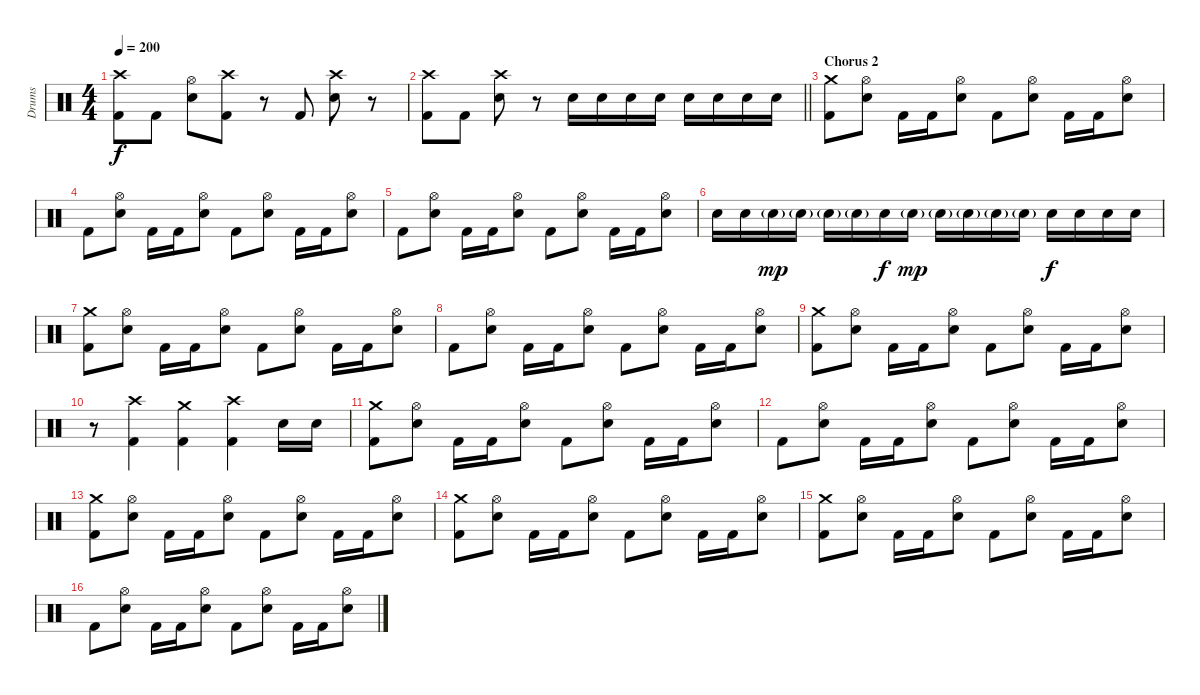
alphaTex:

\track ("Drums" "Drums") {instrument percussion}
\staff {score}
\articulation defaults
\ts (4 4)
\tempo 200
\clef neutral
\ks c
("Crash high (hit)" "Kick (hit) 2").8{dy f} "Kick (hit) 2".8 ("Hi-Hat (open)" "Electric Snare (hit)").8 ("Crash high (hit)" "Kick (hit) 2").8 r.8 "Kick (hit) 2".8 ("Crash high (hit)" "Electric Snare (hit)").8 r.8 |
\barLineRight lightlight
("Crash high (hit)" "Kick (hit) 2").8 "Kick (hit) 2".8 ("Crash high (hit)" "Electric Snare (hit)").8 r.8 "Electric Snare (hit)".16 "Electric Snare (hit)".16 "Electric Snare (hit)".16 "Electric Snare (hit)".16 "Electric Snare (hit)".16 "Electric Snare (hit)".16 "Electric Snare (hit)".16 "Electric Snare (hit)".16 |
\section ("" "Chorus 2")
("Crash medium (hit)" "Kick (hit) 2").8 ("Hi-Hat (open)" "Electric Snare (hit)").8 "Kick (hit) 2".16 "Kick (hit) 2".16 ("Hi-Hat (open)" "Electric Snare (hit)").8 "Kick (hit) 2".8 ("Hi-Hat (open)" "Electric Snare (hit)").8 "Kick (hit) 2".16 "Kick (hit) 2".16 ("Hi-Hat (open)" "Electric Snare (hit)").8 |
"Kick (hit) 2".8 ("Hi-Hat (open)" "Electric Snare (hit)").8 "Kick (hit) 2".16 "Kick (hit) 2".16 ("Hi-Hat (open)" "Electric Snare (hit)").8 "Kick (hit) 2".8 ("Hi-Hat (open)" "Electric Snare (hit)").8 "Kick (hit) 2".16 "Kick (hit) 2".16 ("Hi-Hat (open)" "Electric Snare (hit)").8 |
"Kick (hit) 2".8 ("Hi-Hat (open)" "Electric Snare (hit)").8 "Kick (hit) 2".16 "Kick (hit) 2".16 ("Hi-Hat (open)" "Electric Snare (hit)").8 "Kick (hit) 2".8 ("Hi-Hat (open)" "Electric Snare (hit)").8 "Kick (hit) 2".16 "Kick (hit) 2".16 ("Hi-Hat (open)" "Electric Snare (hit)").8 |
"Electric Snare (hit)".16 "Electric Snare (hit)".16 "Electric Snare (hit)"{g}.16{dy mp} "Electric Snare (hit)"{g}.16 "Electric Snare (hit)"{g}.16 "Electric Snare (hit)"{g}.16 "Electric Snare (hit)".16{dy f} "Electric Snare (hit)"{g}.16{dy mp} "Electric Snare (hit)"{g}.16 "Electric Snare (hit)"{g}.16 "Electric Snare (hit)"{g}.16 "Electric Snare (hit)"{g}.16 "Electric Snare (hit)".16{dy f} "Electric Snare (hit)".16 "Electric Snare (hit)".16 "Electric Snare (hit)".16 |
("Crash medium (hit)" "Kick (hit) 2").8 ("Hi-Hat (open)" "Electric Snare (hit)").8 "Kick (hit) 2".16 "Kick (hit) 2".16 ("Hi-Hat (open)" "Electric Snare (hit)").8 "Kick (hit) 2".8 ("Hi-Hat (open)" "Electric Snare (hit)").8 "Kick (hit) 2".16 "Kick (hit) 2".16 ("Hi-Hat (open)" "Electric Snare (hit)").8 |
"Kick (hit) 2".8 ("Hi-Hat (open)" "Electric Snare (hit)").8 "Kick (hit) 2".16 "Kick (hit) 2".16 ("Hi-Hat (open)" "Electric Snare (hit)").8 "Kick (hit) 2".8 ("Hi-Hat (open)" "Electric Snare (hit)").8 "Kick (hit) 2".16 "Kick (hit) 2".16 ("Hi-Hat (open)" "Electric Snare (hit)").8 |
("Crash medium (hit)" "Kick (hit) 2").8 ("Hi-Hat (open)" "Electric Snare (hit)").8 "Kick (hit) 2".16 "Kick (hit) 2".16 ("Hi-Hat (open)" "Electric Snare (hit)").8 "Kick (hit) 2".8 ("Hi-Hat (open)" "Electric Snare (hit)").8 "Kick (hit) 2".16 "Kick (hit) 2".16 ("Hi-Hat (open)" "Electric Snare (hit)").8 |
r.8 ("Crash high (hit)" "Kick (hit) 2").4 ("Crash medium (hit)" "Kick (hit) 2").4 ("Crash high (hit)" "Kick (hit) 2").4 "Electric Snare (hit)".16 "Electric Snare (hit)".16 |
("Crash medium (hit)" "Kick (hit) 2").8 ("Hi-Hat (open)" "Electric Snare (hit)").8 "Kick (hit) 2".16 "Kick (hit) 2".16 ("Hi-Hat (open)" "Electric Snare (hit)").8 "Kick (hit) 2".8 ("Hi-Hat (open)" "Electric Snare (hit)").8 "Kick (hit) 2".16 "Kick (hit) 2".16 ("Hi-Hat (open)" "Electric Snare (hit)").8 |
"Kick (hit) 2".8 ("Hi-Hat (open)" "Electric Snare (hit)").8 "Kick (hit) 2".16 "Kick (hit) 2".16 ("Hi-Hat (open)" "Electric Snare (hit)").8 "Kick (hit) 2".8 ("Hi-Hat (open)" "Electric Snare (hit)").8 "Kick (hit) 2".16 "Kick (hit) 2".16 ("Hi-Hat (open)" "Electric Snare (hit)").8 |
("Crash medium (hit)" "Kick (hit) 2").8 ("Hi-Hat (open)" "Electric Snare (hit)").8 "Kick (hit) 2".16 "Kick (hit) 2".16 ("Hi-Hat (open)" "Electric Snare (hit)").8 "Kick (hit) 2".8 ("Hi-Hat (open)" "Electric Snare (hit)").8 "Kick (hit) 2".16 "Kick (hit) 2".16 ("Hi-Hat (open)" "Electric Snare (hit)").8 |
("Crash medium (hit)" "Kick (hit) 2").8 ("Hi-Hat (open)" "Electric Snare (hit)").8 "Kick (hit) 2".16 "Kick (hit) 2".16 ("Hi-Hat (open)" "Electric Snare (hit)").8 "Kick (hit) 2".8 ("Hi-Hat (open)" "Electric Snare (hit)").8 "Kick (hit) 2".16 "Kick (hit) 2".16 ("Hi-Hat (open)" "Electric Snare (hit)").8 |
("Crash medium (hit)" "Kick (hit) 2").8 ("Hi-Hat (open)" "Electric Snare (hit)").8 "Kick (hit) 2".16 "Kick (hit) 2".16 ("Hi-Hat (open)" "Electric Snare (hit)").8 "Kick (hit) 2".8 ("Hi-Hat (open)" "Electric Snare (hit)").8 "Kick (hit) 2".16 "Kick (hit) 2".16 ("Hi-Hat (open)" "Electric Snare (hit)").8 |
"Kick (hit) 2".8 ("Hi-Hat (open)" "Electric Snare (hit)").8 "Kick (hit) 2".16 "Kick (hit) 2".16 ("Hi-Hat (open)" "Electric Snare (hit)").8 "Kick (hit) 2".8 ("Hi-Hat (open)" "Electric Snare (hit)").8 "Kick (hit) 2".16 "Kick (hit) 2".16 ("Hi-Hat (open)" "Electric Snare (hit)").8
